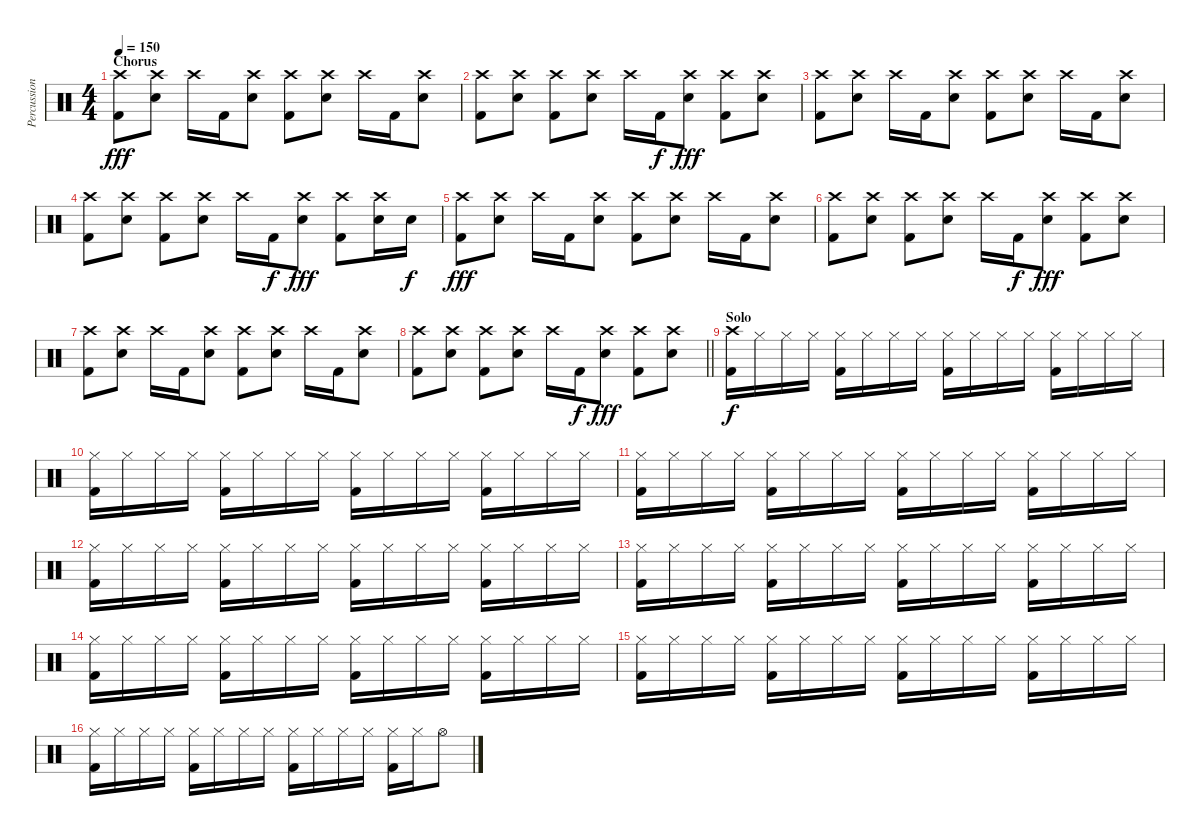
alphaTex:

\track ("Percussion" "Percussion") {instrument percussion}
\staff {score}
\articulation defaults
\ts (4 4)
\section ("" "Chorus")
\tempo 150
\clef neutral
\ks c
("Crash high (hit)" "Kick (hit) 2").8{dy fff} ("Crash high (hit)" "Snare (hit) 2").8 "Crash high (hit)".16 "Kick (hit) 2".16 ("Crash high (hit)" "Snare (hit) 2").8 ("Crash high (hit)" "Kick (hit) 2").8 ("Crash high (hit)" "Snare (hit) 2").8 "Crash high (hit)".16 "Kick (hit) 2".16 ("Crash high (hit)" "Snare (hit) 2").8 |
("Crash high (hit)" "Kick (hit) 2").8 ("Crash high (hit)" "Snare (hit) 2").8 ("Crash high (hit)" "Kick (hit) 2").8 ("Crash high (hit)" "Snare (hit) 2").8 "Crash high (hit)".16 "Kick (hit) 2".16{dy f} ("Crash high (hit)" "Snare (hit) 2").8{dy fff} ("Crash high (hit)" "Kick (hit) 2").8 ("Crash high (hit)" "Snare (hit) 2").8 |
("Crash high (hit)" "Kick (hit) 2").8 ("Crash high (hit)" "Snare (hit) 2").8 "Crash high (hit)".16 "Kick (hit) 2".16 ("Crash high (hit)" "Snare (hit) 2").8 ("Crash high (hit)" "Kick (hit) 2").8 ("Crash high (hit)" "Snare (hit) 2").8 "Crash high (hit)".16 "Kick (hit) 2".16 ("Crash high (hit)" "Snare (hit) 2").8 |
("Crash high (hit)" "Kick (hit) 2").8 ("Crash high (hit)" "Snare (hit) 2").8 ("Crash high (hit)" "Kick (hit) 2").8 ("Crash high (hit)" "Snare (hit) 2").8 "Crash high (hit)".16 "Kick (hit) 2".16{dy f} ("Crash high (hit)" "Snare (hit) 2").8{dy fff} ("Crash high (hit)" "Kick (hit) 2").8 ("Crash high (hit)" "Snare (hit) 2").16 "Snare (hit) 2".16{dy f} |
("Crash high (hit)" "Kick (hit) 2").8{dy fff} ("Crash high (hit)" "Snare (hit) 2").8 "Crash high (hit)".16 "Kick (hit) 2".16 ("Crash high (hit)" "Snare (hit) 2").8 ("Crash high (hit)" "Kick (hit) 2").8 ("Crash high (hit)" "Snare (hit) 2").8 "Crash high (hit)".16 "Kick (hit) 2".16 ("Crash high (hit)" "Snare (hit) 2").8 |
("Crash high (hit)" "Kick (hit) 2").8 ("Crash high (hit)" "Snare (hit) 2").8 ("Crash high (hit)" "Kick (hit) 2").8 ("Crash high (hit)" "Snare (hit) 2").8 "Crash high (hit)".16 "Kick (hit) 2".16{dy f} ("Crash high (hit)" "Snare (hit) 2").8{dy fff} ("Crash high (hit)" "Kick (hit) 2").8 ("Crash high (hit)" "Snare (hit) 2").8 |
("Crash high (hit)" "Kick (hit) 2").8 ("Crash high (hit)" "Snare (hit) 2").8 "Crash high (hit)".16 "Kick (hit) 2".16 ("Crash high (hit)" "Snare (hit) 2").8 ("Crash high (hit)" "Kick (hit) 2").8 ("Crash high (hit)" "Snare (hit) 2").8 "Crash high (hit)".16 "Kick (hit) 2".16 ("Crash high (hit)" "Snare (hit) 2").8 |
\barLineRight lightlight
("Crash high (hit)" "Kick (hit) 2").8 ("Crash high (hit)" "Snare (hit) 2").8 ("Crash high (hit)" "Kick (hit) 2").8 ("Crash high (hit)" "Snare (hit) 2").8 "Crash high (hit)".16 "Kick (hit) 2".16{dy f} ("Crash high (hit)" "Snare (hit) 2").8{dy fff} ("Crash high (hit)" "Kick (hit) 2").8 ("Crash high (hit)" "Snare (hit) 2").8 |
\section ("" "Solo")
("Crash high (hit)" "Kick (hit) 2").16{dy f} "Hi-Hat (closed)".16 "Hi-Hat (closed)".16 "Hi-Hat (closed)".16 ("Hi-Hat (closed)" "Kick (hit) 2").16 "Hi-Hat (closed)".16 "Hi-Hat (closed)".16 "Hi-Hat (closed)".16 ("Hi-Hat (closed)" "Kick (hit) 2").16 "Hi-Hat (closed)".16 "Hi-Hat (closed)".16 "Hi-Hat (closed)".16 ("Hi-Hat (closed)" "Kick (hit) 2").16 "Hi-Hat (closed)".16 "Hi-Hat (closed)".16 "Hi-Hat (closed)".16 |
("Hi-Hat (closed)" "Kick (hit) 2").16 "Hi-Hat (closed)".16 "Hi-Hat (closed)".16 "Hi-Hat (closed)".16 ("Hi-Hat (closed)" "Kick (hit) 2").16 "Hi-Hat (closed)".16 "Hi-Hat (closed)".16 "Hi-Hat (closed)".16 ("Hi-Hat (closed)" "Kick (hit) 2").16 "Hi-Hat (closed)".16 "Hi-Hat (closed)".16 "Hi-Hat (closed)".16 ("Hi-Hat (closed)" "Kick (hit) 2").16 "Hi-Hat (closed)".16 "Hi-Hat (closed)".16 "Hi-Hat (closed)".16 |
("Hi-Hat (closed)" "Kick (hit) 2").16 "Hi-Hat (closed)".16 "Hi-Hat (closed)".16 "Hi-Hat (closed)".16 ("Hi-Hat (closed)" "Kick (hit) 2").16 "Hi-Hat (closed)".16 "Hi-Hat (closed)".16 "Hi-Hat (closed)".16 ("Hi-Hat (closed)" "Kick (hit) 2").16 "Hi-Hat (closed)".16 "Hi-Hat (closed)".16 "Hi-Hat (closed)".16 ("Hi-Hat (closed)" "Kick (hit) 2").16 "Hi-Hat (closed)".16 "Hi-Hat (closed)".16 "Hi-Hat (closed)".16 |
("Hi-Hat (closed)" "Kick (hit) 2").16 "Hi-Hat (closed)".16 "Hi-Hat (closed)".16 "Hi-Hat (closed)".16 ("Hi-Hat (closed)" "Kick (hit) 2").16 "Hi-Hat (closed)".16 "Hi-Hat (closed)".16 "Hi-Hat (closed)".16 ("Hi-Hat (closed)" "Kick (hit) 2").16 "Hi-Hat (closed)".16 "Hi-Hat (closed)".16 "Hi-Hat (closed)".16 ("Hi-Hat (closed)" "Kick (hit) 2").16 "Hi-Hat (closed)".16 "Hi-Hat (closed)".16 "Hi-Hat (closed)".16 |
("Hi-Hat (closed)" "Kick (hit) 2").16 "Hi-Hat (closed)".16 "Hi-Hat (closed)".16 "Hi-Hat (closed)".16 ("Hi-Hat (closed)" "Kick (hit) 2").16 "Hi-Hat (closed)".16 "Hi-Hat (closed)".16 "Hi-Hat (closed)".16 ("Hi-Hat (closed)" "Kick (hit) 2").16 "Hi-Hat (closed)".16 "Hi-Hat (closed)".16 "Hi-Hat (closed)".16 ("Hi-Hat (closed)" "Kick (hit) 2").16 "Hi-Hat (closed)".16 "Hi-Hat (closed)".16 "Hi-Hat (closed)".16 |
("Hi-Hat (closed)" "Kick (hit) 2").16 "Hi-Hat (closed)".16 "Hi-Hat (closed)".16 "Hi-Hat (closed)".16 ("Hi-Hat (closed)" "Kick (hit) 2").16 "Hi-Hat (closed)".16 "Hi-Hat (closed)".16 "Hi-Hat (closed)".16 ("Hi-Hat (closed)" "Kick (hit) 2").16 "Hi-Hat (closed)".16 "Hi-Hat (closed)".16 "Hi-Hat (closed)".16 ("Hi-Hat (closed)" "Kick (hit) 2").16 "Hi-Hat (closed)".16 "Hi-Hat (closed)".16 "Hi-Hat (closed)".16 |
("Hi-Hat (closed)" "Kick (hit) 2").16 "Hi-Hat (closed)".16 "Hi-Hat (closed)".16 "Hi-Hat (closed)".16 ("Hi-Hat (closed)" "Kick (hit) 2").16 "Hi-Hat (closed)".16 "Hi-Hat (closed)".16 "Hi-Hat (closed)".16 ("Hi-Hat (closed)" "Kick (hit) 2").16 "Hi-Hat (closed)".16 "Hi-Hat (closed)".16 "Hi-Hat (closed)".16 ("Hi-Hat (closed)" "Kick (hit) 2").16 "Hi-Hat (closed)".16 "Hi-Hat (closed)".16 "Hi-Hat (closed)".16 |
("Hi-Hat (closed)" "Kick (hit) 2").16 "Hi-Hat (closed)".16 "Hi-Hat (closed)".16 "Hi-Hat (closed)".16 ("Hi-Hat (closed)" "Kick (hit) 2").16 "Hi-Hat (closed)".16 "Hi-Hat (closed)".16 "Hi-Hat (closed)".16 ("Hi-Hat (closed)" "Kick (hit) 2").16 "Hi-Hat (closed)".16 "Hi-Hat (closed)".16 "Hi-Hat (closed)".16 ("Hi-Hat (closed)" "Kick (hit) 2").16 "Hi-Hat (closed)".16 "Hi-Hat (open)".8
